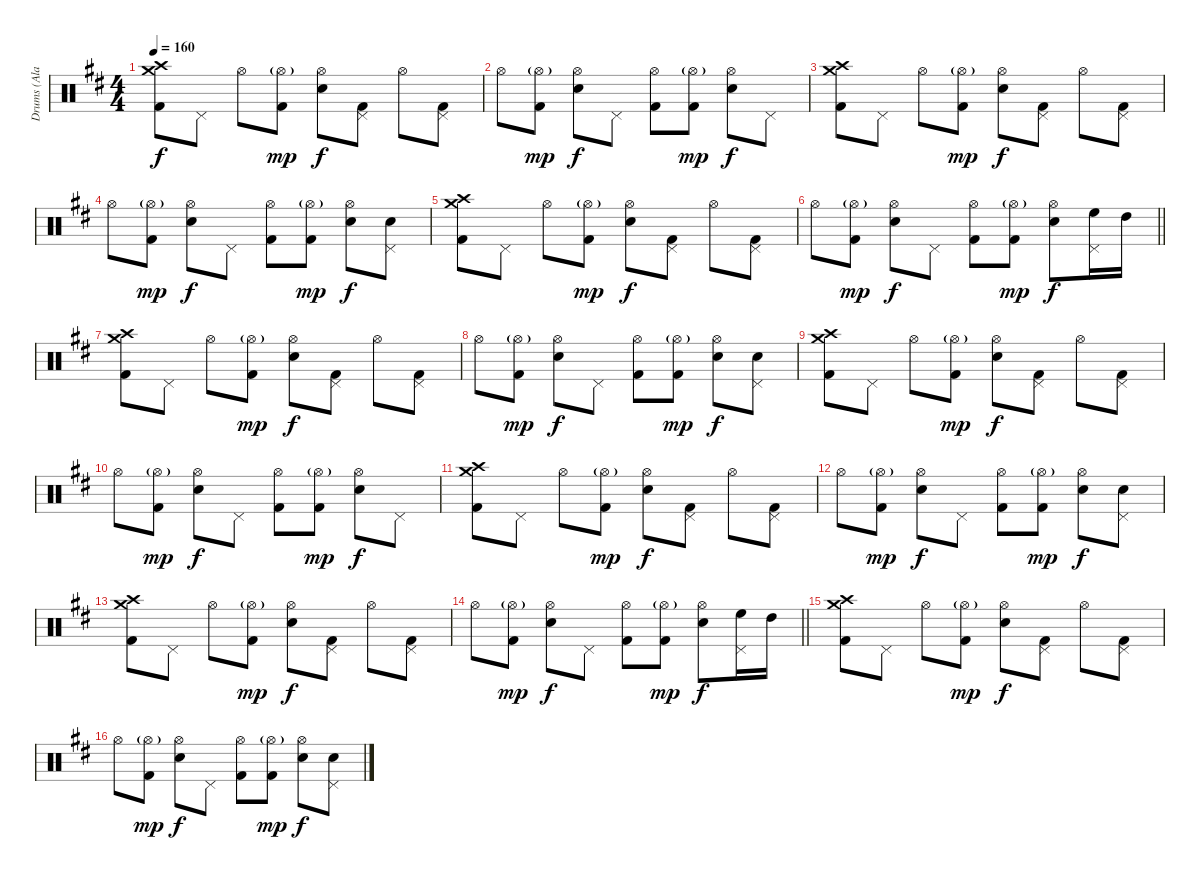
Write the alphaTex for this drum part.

\track ("Drums (Ala Pyle)" "Drums (Ala") {instrument percussion}
\staff {score}
\articulation defaults
\ts (4 4)
\tempo 160
\clef neutral
\ks d
("Crash medium (hit)" "Crash high (hit)" "Kick (hit) 2").8{dy f} "Pedal Hi-Hat (hit)".8 "Hi-Hat (open)".8 ("Hi-Hat (open)"{g} "Kick (hit) 2").8{dy mp} ("Snare (hit) 2" "Hi-Hat (open)").8{dy f} ("Pedal Hi-Hat (hit)" "Kick (hit) 2").8 "Hi-Hat (open)".8 ("Pedal Hi-Hat (hit)" "Kick (hit) 2").8 |
"Hi-Hat (open)".8 ("Hi-Hat (open)"{g} "Kick (hit) 2").8{dy mp} ("Snare (hit) 2" "Hi-Hat (open)").8{dy f} "Pedal Hi-Hat (hit)".8 ("Hi-Hat (open)" "Kick (hit) 2").8 ("Hi-Hat (open)"{g} "Kick (hit) 2").8{dy mp} ("Snare (hit) 2" "Hi-Hat (open)").8{dy f} "Pedal Hi-Hat (hit)".8 |
("Crash medium (hit)" "Crash high (hit)" "Kick (hit) 2").8 "Pedal Hi-Hat (hit)".8 "Hi-Hat (open)".8 ("Hi-Hat (open)"{g} "Kick (hit) 2").8{dy mp} ("Snare (hit) 2" "Hi-Hat (open)").8{dy f} ("Pedal Hi-Hat (hit)" "Kick (hit) 2").8 "Hi-Hat (open)".8 ("Pedal Hi-Hat (hit)" "Kick (hit) 2").8 |
"Hi-Hat (open)".8 ("Hi-Hat (open)"{g} "Kick (hit) 2").8{dy mp} ("Snare (hit) 2" "Hi-Hat (open)").8{dy f} "Pedal Hi-Hat (hit)".8 ("Hi-Hat (open)" "Kick (hit) 2").8 ("Hi-Hat (open)"{g} "Kick (hit) 2").8{dy mp} ("Snare (hit) 2" "Hi-Hat (open)").8{dy f} ("Snare (hit) 2" "Pedal Hi-Hat (hit)").8 |
("Crash medium (hit)" "Crash high (hit)" "Kick (hit) 2").8 "Pedal Hi-Hat (hit)".8 "Hi-Hat (open)".8 ("Hi-Hat (open)"{g} "Kick (hit) 2").8{dy mp} ("Snare (hit) 2" "Hi-Hat (open)").8{dy f} ("Pedal Hi-Hat (hit)" "Kick (hit) 2").8 "Hi-Hat (open)".8 ("Pedal Hi-Hat (hit)" "Kick (hit) 2").8 |
\barLineRight lightlight "Hi-Hat (open)".8
("Hi-Hat (open)"{g} "Kick (hit) 2").8{dy mp} ("Snare (hit) 2" "Hi-Hat (open)").8{dy f} "Pedal Hi-Hat (hit)".8 ("Hi-Hat (open)" "Kick (hit) 2").8 ("Hi-Hat (open)"{g} "Kick (hit) 2").8{dy mp} ("Snare (hit) 2" "Hi-Hat (open)").8{dy f} ("Pedal Hi-Hat (hit)" "High Floor Tom (hit)").16 "High Tom (hit)".16 |
("Crash medium (hit)" "Crash high (hit)" "Kick (hit) 2").8 "Pedal Hi-Hat (hit)".8 "Hi-Hat (open)".8 ("Hi-Hat (open)"{g} "Kick (hit) 2").8{dy mp} ("Snare (hit) 2" "Hi-Hat (open)").8{dy f} ("Pedal Hi-Hat (hit)" "Kick (hit) 2").8 "Hi-Hat (open)".8 ("Pedal Hi-Hat (hit)" "Kick (hit) 2").8 |
"Hi-Hat (open)".8 ("Hi-Hat (open)"{g} "Kick (hit) 2").8{dy mp} ("Snare (hit) 2" "Hi-Hat (open)").8{dy f} "Pedal Hi-Hat (hit)".8 ("Hi-Hat (open)" "Kick (hit) 2").8 ("Hi-Hat (open)"{g} "Kick (hit) 2").8{dy mp} ("Snare (hit) 2" "Hi-Hat (open)").8{dy f} ("Snare (hit) 2" "Pedal Hi-Hat (hit)").8 |
("Crash medium (hit)" "Crash high (hit)" "Kick (hit) 2").8 "Pedal Hi-Hat (hit)".8 "Hi-Hat (open)".8 ("Hi-Hat (open)"{g} "Kick (hit) 2").8{dy mp} ("Snare (hit) 2" "Hi-Hat (open)").8{dy f} ("Pedal Hi-Hat (hit)" "Kick (hit) 2").8 "Hi-Hat (open)".8 ("Pedal Hi-Hat (hit)" "Kick (hit) 2").8 |
"Hi-Hat (open)".8 ("Hi-Hat (open)"{g} "Kick (hit) 2").8{dy mp} ("Snare (hit) 2" "Hi-Hat (open)").8{dy f} "Pedal Hi-Hat (hit)".8 ("Hi-Hat (open)" "Kick (hit) 2").8 ("Hi-Hat (open)"{g} "Kick (hit) 2").8{dy mp} ("Snare (hit) 2" "Hi-Hat (open)").8{dy f} "Pedal Hi-Hat (hit)".8 |
("Crash medium (hit)" "Crash high (hit)" "Kick (hit) 2").8 "Pedal Hi-Hat (hit)".8 "Hi-Hat (open)".8 ("Hi-Hat (open)"{g} "Kick (hit) 2").8{dy mp} ("Snare (hit) 2" "Hi-Hat (open)").8{dy f} ("Pedal Hi-Hat (hit)" "Kick (hit) 2").8 "Hi-Hat (open)".8 ("Pedal Hi-Hat (hit)" "Kick (hit) 2").8 |
"Hi-Hat (open)".8 ("Hi-Hat (open)"{g} "Kick (hit) 2").8{dy mp} ("Snare (hit) 2" "Hi-Hat (open)").8{dy f} "Pedal Hi-Hat (hit)".8 ("Hi-Hat (open)" "Kick (hit) 2").8 ("Hi-Hat (open)"{g} "Kick (hit) 2").8{dy mp} ("Snare (hit) 2" "Hi-Hat (open)").8{dy f} ("Snare (hit) 2" "Pedal Hi-Hat (hit)").8 |
("Crash medium (hit)" "Crash high (hit)" "Kick (hit) 2").8 "Pedal Hi-Hat (hit)".8 "Hi-Hat (open)".8 ("Hi-Hat (open)"{g} "Kick (hit) 2").8{dy mp} ("Snare (hit) 2" "Hi-Hat (open)").8{dy f} ("Pedal Hi-Hat (hit)" "Kick (hit) 2").8 "Hi-Hat (open)".8 ("Pedal Hi-Hat (hit)" "Kick (hit) 2").8 |
\barLineRight lightlight "Hi-Hat (open)".8
("Hi-Hat (open)"{g} "Kick (hit) 2").8{dy mp} ("Snare (hit) 2" "Hi-Hat (open)").8{dy f} "Pedal Hi-Hat (hit)".8 ("Hi-Hat (open)" "Kick (hit) 2").8 ("Hi-Hat (open)"{g} "Kick (hit) 2").8{dy mp} ("Snare (hit) 2" "Hi-Hat (open)").8{dy f} ("Pedal Hi-Hat (hit)" "High Floor Tom (hit)").16 "High Tom (hit)".16 |
("Crash medium (hit)" "Crash high (hit)" "Kick (hit) 2").8 "Pedal Hi-Hat (hit)".8 "Hi-Hat (open)".8 ("Hi-Hat (open)"{g} "Kick (hit) 2").8{dy mp} ("Snare (hit) 2" "Hi-Hat (open)").8{dy f} ("Pedal Hi-Hat (hit)" "Kick (hit) 2").8 "Hi-Hat (open)".8 ("Pedal Hi-Hat (hit)" "Kick (hit) 2").8 |
"Hi-Hat (open)".8 ("Hi-Hat (open)"{g} "Kick (hit) 2").8{dy mp} ("Snare (hit) 2" "Hi-Hat (open)").8{dy f} "Pedal Hi-Hat (hit)".8 ("Hi-Hat (open)" "Kick (hit) 2").8 ("Hi-Hat (open)"{g} "Kick (hit) 2").8{dy mp} ("Snare (hit) 2" "Hi-Hat (open)").8{dy f} ("Snare (hit) 2" "Pedal Hi-Hat (hit)").8
